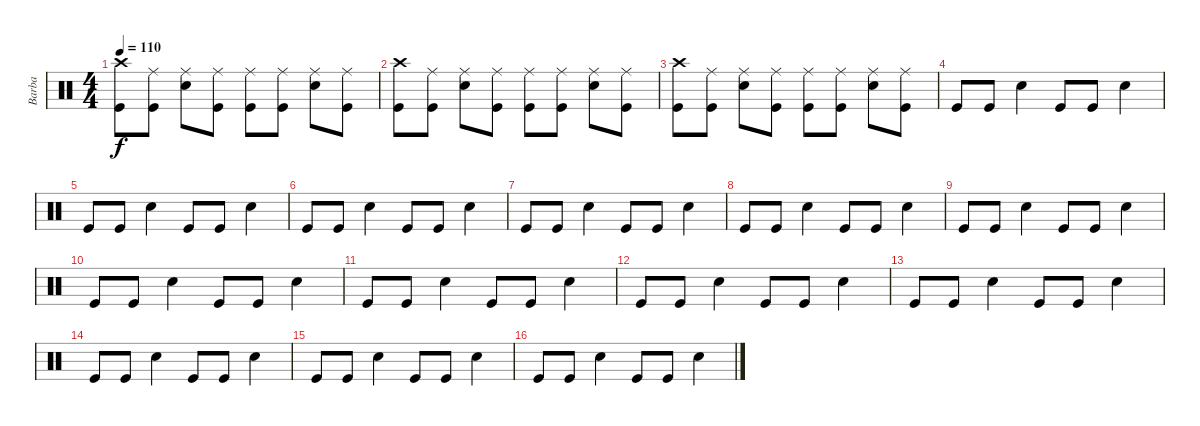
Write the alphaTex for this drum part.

\track ("Barba" "Barba") {instrument percussion}
\staff {score}
\articulation defaults
\ts (4 4)
\tempo 110
\clef neutral
\ks c
("Crash high (hit)" "Kick (hit)").8{dy f} ("Ride (middle)" "Kick (hit)").8 ("Ride (middle)" "Electric Snare (hit)").8 ("Ride (middle)" "Kick (hit)").8 ("Ride (middle)" "Kick (hit)").8 ("Ride (middle)" "Kick (hit)").8 ("Ride (middle)" "Electric Snare (hit)").8 ("Ride (middle)" "Kick (hit)").8 |
("Crash high (hit)" "Kick (hit)").8 ("Ride (middle)" "Kick (hit)").8 ("Ride (middle)" "Electric Snare (hit)").8 ("Ride (middle)" "Kick (hit)").8 ("Ride (middle)" "Kick (hit)").8 ("Ride (middle)" "Kick (hit)").8 ("Ride (middle)" "Electric Snare (hit)").8 ("Ride (middle)" "Kick (hit)").8 |
("Crash high (hit)" "Kick (hit)").8 ("Ride (middle)" "Kick (hit)").8 ("Ride (middle)" "Electric Snare (hit)").8 ("Ride (middle)" "Kick (hit)").8 ("Ride (middle)" "Kick (hit)").8 ("Ride (middle)" "Kick (hit)").8 ("Ride (middle)" "Electric Snare (hit)").8 ("Ride (middle)" "Kick (hit)").8 |
"Kick (hit)".8 "Kick (hit)".8 "Electric Snare (hit)".4 "Kick (hit)".8 "Kick (hit)".8 "Electric Snare (hit)".4 |
"Kick (hit)".8 "Kick (hit)".8 "Electric Snare (hit)".4 "Kick (hit)".8 "Kick (hit)".8 "Electric Snare (hit)".4 |
"Kick (hit)".8 "Kick (hit)".8 "Electric Snare (hit)".4 "Kick (hit)".8 "Kick (hit)".8 "Electric Snare (hit)".4 |
"Kick (hit)".8 "Kick (hit)".8 "Electric Snare (hit)".4 "Kick (hit)".8 "Kick (hit)".8 "Electric Snare (hit)".4 |
"Kick (hit)".8 "Kick (hit)".8 "Electric Snare (hit)".4 "Kick (hit)".8 "Kick (hit)".8 "Electric Snare (hit)".4 |
"Kick (hit)".8 "Kick (hit)".8 "Electric Snare (hit)".4 "Kick (hit)".8 "Kick (hit)".8 "Electric Snare (hit)".4 |
"Kick (hit)".8 "Kick (hit)".8 "Electric Snare (hit)".4 "Kick (hit)".8 "Kick (hit)".8 "Electric Snare (hit)".4 |
"Kick (hit)".8 "Kick (hit)".8 "Electric Snare (hit)".4 "Kick (hit)".8 "Kick (hit)".8 "Electric Snare (hit)".4 |
"Kick (hit)".8 "Kick (hit)".8 "Electric Snare (hit)".4 "Kick (hit)".8 "Kick (hit)".8 "Electric Snare (hit)".4 |
"Kick (hit)".8 "Kick (hit)".8 "Electric Snare (hit)".4 "Kick (hit)".8 "Kick (hit)".8 "Electric Snare (hit)".4 |
"Kick (hit)".8 "Kick (hit)".8 "Electric Snare (hit)".4 "Kick (hit)".8 "Kick (hit)".8 "Electric Snare (hit)".4 |
"Kick (hit)".8 "Kick (hit)".8 "Electric Snare (hit)".4 "Kick (hit)".8 "Kick (hit)".8 "Electric Snare (hit)".4 |
"Kick (hit)".8 "Kick (hit)".8 "Electric Snare (hit)".4 "Kick (hit)".8 "Kick (hit)".8 "Electric Snare (hit)".4
